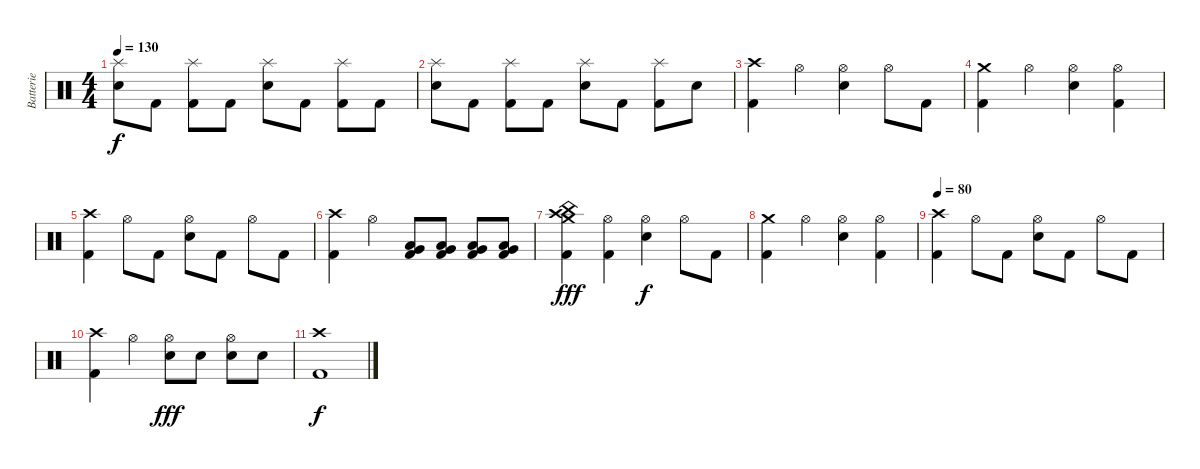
\track ("Batterie" "Batterie") {instrument percussion}
\staff {score}
\articulation defaults
\ts (4 4)
\tempo 130
\clef neutral
\ks c
("Splash (hit)" "Electric Snare (hit)").8{dy f} "Kick (hit) 2".8 ("Splash (hit)" "Kick (hit) 2").8 "Kick (hit) 2".8 ("Splash (hit)" "Electric Snare (hit)").8 "Kick (hit) 2".8 ("Splash (hit)" "Kick (hit) 2").8 "Kick (hit) 2".8 |
("Splash (hit)" "Electric Snare (hit)").8 "Kick (hit) 2".8 ("Splash (hit)" "Kick (hit) 2").8 "Kick (hit) 2".8 ("Splash (hit)" "Electric Snare (hit)").8 "Kick (hit) 2".8 ("Splash (hit)" "Kick (hit) 2").8 "Electric Snare (hit)".8 |
("Crash high (hit)" "Kick (hit) 2").4 "Hi-Hat (open)".4 ("Hi-Hat (open)" "Electric Snare (hit)").4 "Hi-Hat (open)".8 "Kick (hit) 2".8 |
("Crash medium (hit)" "Kick (hit) 2").4 "Hi-Hat (open)".4 ("Hi-Hat (open)" "Electric Snare (hit)").4 ("Hi-Hat (open)" "Kick (hit) 2").4 |
("Crash high (hit)" "Kick (hit) 2").4 "Hi-Hat (open)".8 "Kick (hit) 2".8 ("Hi-Hat (open)" "Electric Snare (hit)").8 "Kick (hit) 2".8 "Hi-Hat (open)".8 "Kick (hit) 2".8 |
("Crash high (hit)" "Kick (hit) 2").4 "Hi-Hat (open)".4 ("Kick (hit) 2" "Low Floor Tom (hit)" "Very Low Tom (hit)").8 ("Kick (hit) 2" "Low Floor Tom (hit)" "Very Low Tom (hit)").8 ("Kick (hit) 2" "Low Floor Tom (hit)" "Very Low Tom (hit)").8 ("Kick (hit) 2" "Low Floor Tom (hit)" "Very Low Tom (hit)").8 |
("Crash high (hit)" "Crash medium (hit)" "China (hit)" "Kick (hit) 2").4{dy fff} ("Hi-Hat (open)" "Kick (hit) 2").4 ("Hi-Hat (open)" "Electric Snare (hit)").4{dy f} "Hi-Hat (open)".8 "Kick (hit) 2".8 |
("Crash medium (hit)" "Kick (hit) 2").4 "Hi-Hat (open)".4 ("Hi-Hat (open)" "Electric Snare (hit)").4 ("Hi-Hat (open)" "Kick (hit) 2").4 |
\tempo 80
("Crash high (hit)" "Kick (hit) 2").4 "Hi-Hat (open)".8 "Kick (hit) 2".8 ("Hi-Hat (open)" "Electric Snare (hit)").8 "Kick (hit) 2".8 "Hi-Hat (open)".8 "Kick (hit) 2".8 |
("Crash high (hit)" "Kick (hit) 2").4 "Hi-Hat (open)".4 ("Hi-Hat (open)" "Electric Snare (hit)").8{dy fff} "Electric Snare (hit)".8 ("Hi-Hat (open)" "Electric Snare (hit)").8 "Electric Snare (hit)".8 |
("Crash high (hit)" "Kick (hit) 2").1{dy f}
